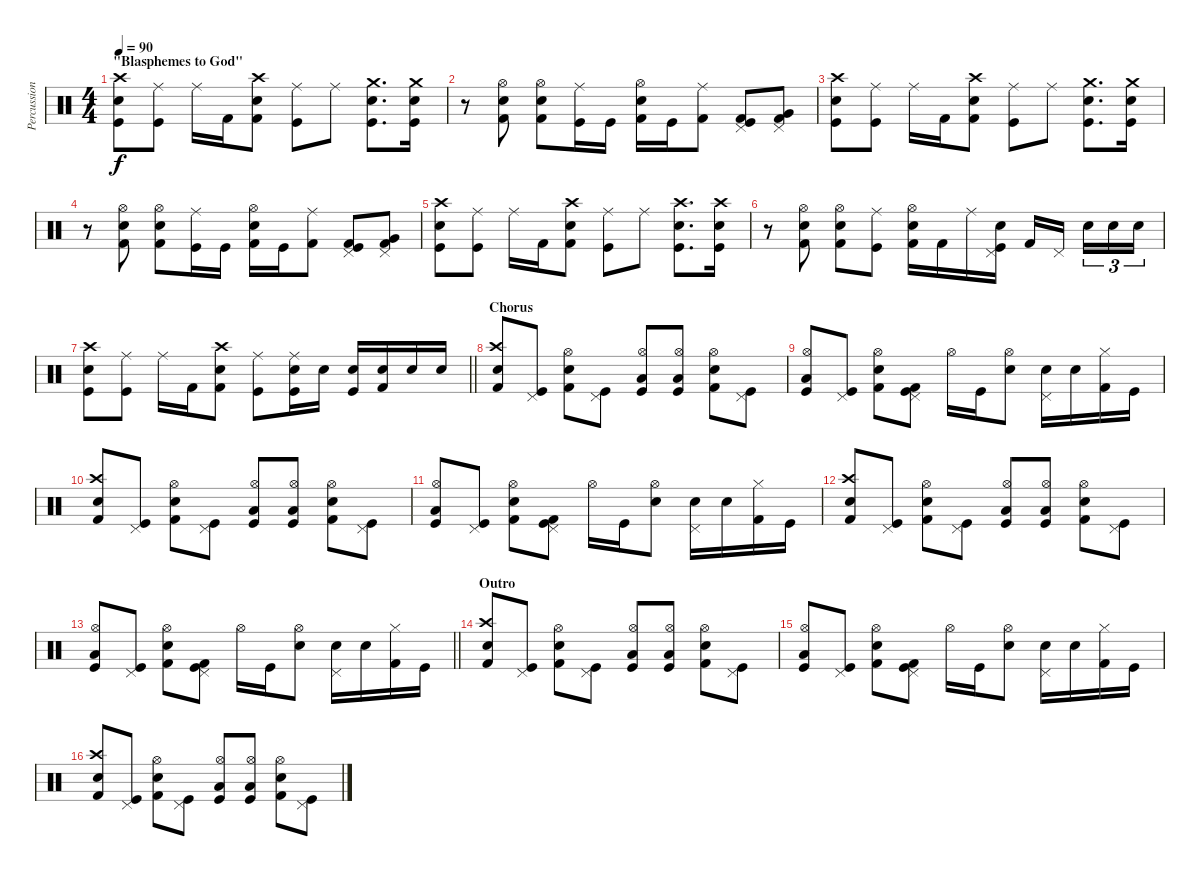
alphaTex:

\track ("Percussion" "Percussion") {instrument percussion}
\staff {score}
\articulation defaults
\ts (4 4)
\section ("" "\"Blasphemes to God\"")
\tempo 90
\clef neutral
\ks c
("Kick (hit)" "Snare (hit) 2" "Crash high (hit)").8{dy f} ("Kick (hit)" "Ride (middle)").8 "Ride (middle)".16 "Kick (hit) 2".16 ("Kick (hit) 2" "Snare (hit) 2" "Crash high (hit)").8 ("Kick (hit)" "Ride (middle)").8 "Ride (middle)".8 ("Kick (hit)" "Snare (hit) 2" "Crash medium (hit)").8{d} ("Kick (hit)" "Snare (hit) 2" "Crash medium (hit)").16 |
r.8 ("Kick (hit) 2" "Electric Snare (hit)" "Hi-Hat (open)").8 ("Kick (hit) 2" "Electric Snare (hit)" "Hi-Hat (open)").8 ("Kick (hit)" "Ride (middle)").16 "Kick (hit)".16 ("Kick (hit) 2" "Electric Snare (hit)" "Hi-Hat (open)").16 "Kick (hit)".16 ("Kick (hit) 2" "Ride (middle)").8 ("Kick (hit)" "Kick (hit) 2" "Pedal Hi-Hat (hit)").8 ("Kick (hit) 2" "Very Low Tom (hit)" "Pedal Hi-Hat (hit)").8 |
("Kick (hit)" "Snare (hit) 2" "Crash high (hit)").8 ("Kick (hit)" "Ride (middle)").8 "Ride (middle)".16 "Kick (hit) 2".16 ("Kick (hit) 2" "Snare (hit) 2" "Crash high (hit)").8 ("Kick (hit)" "Ride (middle)").8 "Ride (middle)".8 ("Kick (hit)" "Snare (hit) 2" "Crash medium (hit)").8{d} ("Kick (hit)" "Snare (hit) 2" "Crash medium (hit)").16 |
r.8 ("Kick (hit) 2" "Electric Snare (hit)" "Hi-Hat (open)").8 ("Kick (hit) 2" "Electric Snare (hit)" "Hi-Hat (open)").8 ("Kick (hit)" "Ride (middle)").16 "Kick (hit)".16 ("Kick (hit) 2" "Electric Snare (hit)" "Hi-Hat (open)").16 "Kick (hit)".16 ("Kick (hit) 2" "Ride (middle)").8 ("Kick (hit)" "Kick (hit) 2" "Pedal Hi-Hat (hit)").8 ("Kick (hit) 2" "Very Low Tom (hit)" "Pedal Hi-Hat (hit)").8 |
("Kick (hit)" "Snare (hit) 2" "Crash high (hit)").8 ("Kick (hit)" "Ride (middle)").8 "Ride (middle)".16 "Kick (hit) 2".16 ("Kick (hit) 2" "Snare (hit) 2" "Crash high (hit)").8 ("Kick (hit)" "Ride (middle)").8 "Ride (middle)".8 ("Kick (hit)" "Snare (hit) 2" "Crash high (hit)").8{d} ("Kick (hit)" "Snare (hit) 2" "Crash high (hit)").16 |
r.8 ("Kick (hit) 2" "Electric Snare (hit)" "Hi-Hat (open)").8 ("Kick (hit) 2" "Electric Snare (hit)" "Hi-Hat (open)").8 ("Kick (hit)" "Ride (middle)").8 ("Kick (hit) 2" "Electric Snare (hit)" "Hi-Hat (open)").16 "Kick (hit) 2".16 "Ride (middle)".16 ("Kick (hit)" "Snare (hit) 2" "Pedal Hi-Hat (hit)").16 "Kick (hit) 2".16 "Pedal Hi-Hat (hit)".16{beam splitsecondary} "Snare (hit) 2".16{tu (3 2)} "Electric Snare (hit)".16{tu (3 2)} "Electric Snare (hit)".16{tu (3 2)} |
\barLineRight lightlight
("Kick (hit)" "Snare (hit) 2" "Crash high (hit)").8 ("Kick (hit)" "Ride (middle)").8 "Ride (middle)".16 "Kick (hit) 2".16 ("Kick (hit) 2" "Snare (hit) 2" "Crash high (hit)").8 ("Kick (hit)" "Ride (middle)").8 ("Kick (hit)" "Snare (hit) 2" "Ride (middle)").16 "Electric Snare (hit)".16 ("Kick (hit)" "Snare (hit) 2").16 ("Kick (hit) 2" "Electric Snare (hit)").16 "Electric Snare (hit)".16 "Electric Snare (hit)".16 |
\section ("" "Chorus")
("Kick (hit) 2" "Snare (hit) 2" "Crash high (hit)").8 ("Kick (hit)" "Pedal Hi-Hat (hit)").8 ("Kick (hit) 2" "Electric Snare (hit)" "Hi-Hat (open)").8 ("Kick (hit)" "Pedal Hi-Hat (hit)").8 ("Kick (hit)" "Low Floor Tom (hit)" "Hi-Hat (open)").8 ("Kick (hit)" "Low Floor Tom (hit)" "Hi-Hat (open)").8 ("Kick (hit) 2" "Electric Snare (hit)" "Hi-Hat (open)").8 ("Kick (hit)" "Pedal Hi-Hat (hit)").8 |
("Kick (hit)" "Low Floor Tom (hit)" "Hi-Hat (open)").8 ("Kick (hit)" "Pedal Hi-Hat (hit)").8 ("Kick (hit) 2" "Snare (hit) 2" "Hi-Hat (open)").8 ("Kick (hit)" "Kick (hit) 2" "Pedal Hi-Hat (hit)").8 "Hi-Hat (open)".16 "Kick (hit)".16 ("Snare (hit) 2" "Hi-Hat (open)").8 ("Snare (hit) 2" "Pedal Hi-Hat (hit)").16 "Snare (hit) 2".16 ("Kick (hit) 2" "Hi-Hat (closed)").16 "Kick (hit)".16 |
("Kick (hit) 2" "Snare (hit) 2" "Crash high (hit)").8 ("Kick (hit)" "Pedal Hi-Hat (hit)").8 ("Kick (hit) 2" "Electric Snare (hit)" "Hi-Hat (open)").8 ("Kick (hit)" "Pedal Hi-Hat (hit)").8 ("Kick (hit)" "Low Floor Tom (hit)" "Hi-Hat (open)").8 ("Kick (hit)" "Low Floor Tom (hit)" "Hi-Hat (open)").8 ("Kick (hit) 2" "Electric Snare (hit)" "Hi-Hat (open)").8 ("Kick (hit)" "Pedal Hi-Hat (hit)").8 |
("Kick (hit)" "Low Floor Tom (hit)" "Hi-Hat (open)").8 ("Kick (hit)" "Pedal Hi-Hat (hit)").8 ("Kick (hit) 2" "Snare (hit) 2" "Hi-Hat (open)").8 ("Kick (hit)" "Kick (hit) 2" "Pedal Hi-Hat (hit)").8 "Hi-Hat (open)".16 "Kick (hit)".16 ("Snare (hit) 2" "Hi-Hat (open)").8 ("Snare (hit) 2" "Pedal Hi-Hat (hit)").16 "Snare (hit) 2".16 ("Kick (hit) 2" "Hi-Hat (closed)").16 "Kick (hit)".16 |
("Kick (hit) 2" "Snare (hit) 2" "Crash high (hit)").8 ("Kick (hit)" "Pedal Hi-Hat (hit)").8 ("Kick (hit) 2" "Electric Snare (hit)" "Hi-Hat (open)").8 ("Kick (hit)" "Pedal Hi-Hat (hit)").8 ("Kick (hit)" "Low Floor Tom (hit)" "Hi-Hat (open)").8 ("Kick (hit)" "Low Floor Tom (hit)" "Hi-Hat (open)").8 ("Kick (hit) 2" "Electric Snare (hit)" "Hi-Hat (open)").8 ("Kick (hit)" "Pedal Hi-Hat (hit)").8 |
\barLineRight lightlight
("Kick (hit)" "Low Floor Tom (hit)" "Hi-Hat (open)").8 ("Kick (hit)" "Pedal Hi-Hat (hit)").8 ("Kick (hit) 2" "Snare (hit) 2" "Hi-Hat (open)").8 ("Kick (hit)" "Kick (hit) 2" "Pedal Hi-Hat (hit)").8 "Hi-Hat (open)".16 "Kick (hit)".16 ("Snare (hit) 2" "Hi-Hat (open)").8 ("Snare (hit) 2" "Pedal Hi-Hat (hit)").16 "Snare (hit) 2".16 ("Kick (hit) 2" "Hi-Hat (closed)").16 "Kick (hit)".16 |
\section ("" "Outro")
("Kick (hit) 2" "Snare (hit) 2" "Crash high (hit)").8 ("Kick (hit)" "Pedal Hi-Hat (hit)").8 ("Kick (hit) 2" "Electric Snare (hit)" "Hi-Hat (open)").8 ("Kick (hit)" "Pedal Hi-Hat (hit)").8 ("Kick (hit)" "Low Floor Tom (hit)" "Hi-Hat (open)").8 ("Kick (hit)" "Low Floor Tom (hit)" "Hi-Hat (open)").8 ("Kick (hit) 2" "Electric Snare (hit)" "Hi-Hat (open)").8 ("Kick (hit)" "Pedal Hi-Hat (hit)").8 |
("Kick (hit)" "Low Floor Tom (hit)" "Hi-Hat (open)").8 ("Kick (hit)" "Pedal Hi-Hat (hit)").8 ("Kick (hit) 2" "Snare (hit) 2" "Hi-Hat (open)").8 ("Kick (hit)" "Kick (hit) 2" "Pedal Hi-Hat (hit)").8 "Hi-Hat (open)".16 "Kick (hit)".16 ("Snare (hit) 2" "Hi-Hat (open)").8 ("Snare (hit) 2" "Pedal Hi-Hat (hit)").16 "Snare (hit) 2".16 ("Kick (hit) 2" "Hi-Hat (closed)").16 "Kick (hit)".16 |
("Kick (hit) 2" "Snare (hit) 2" "Crash high (hit)").8 ("Kick (hit)" "Pedal Hi-Hat (hit)").8 ("Kick (hit) 2" "Electric Snare (hit)" "Hi-Hat (open)").8 ("Kick (hit)" "Pedal Hi-Hat (hit)").8 ("Kick (hit)" "Low Floor Tom (hit)" "Hi-Hat (open)").8 ("Kick (hit)" "Low Floor Tom (hit)" "Hi-Hat (open)").8 ("Kick (hit) 2" "Electric Snare (hit)" "Hi-Hat (open)").8 ("Kick (hit)" "Pedal Hi-Hat (hit)").8
